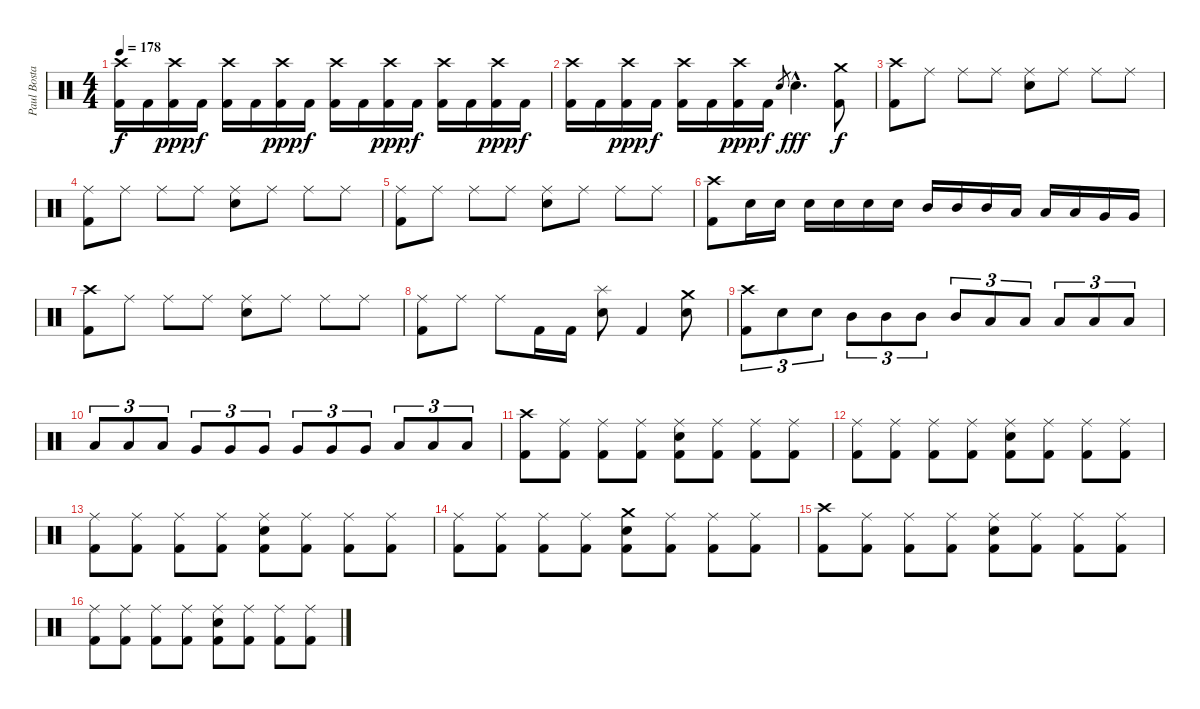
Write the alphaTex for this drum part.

\track ("Paul Bostaph" "Paul Bosta") {instrument percussion}
\staff {score}
\articulation defaults
\ts (4 4)
\tempo 178
\clef neutral
\ks c
("Crash high (hit)" "Kick (hit) 2").16{dy f} "Kick (hit) 2".16 ("Crash high (hit)" "Kick (hit) 2").16{dy ppp} "Kick (hit) 2".16{dy f} ("Crash high (hit)" "Kick (hit) 2").16 "Kick (hit) 2".16 ("Crash high (hit)" "Kick (hit) 2").16{dy ppp} "Kick (hit) 2".16{dy f} ("Crash high (hit)" "Kick (hit) 2").16 "Kick (hit) 2".16 ("Crash high (hit)" "Kick (hit) 2").16{dy ppp} "Kick (hit) 2".16{dy f} ("Crash high (hit)" "Kick (hit) 2").16 "Kick (hit) 2".16 ("Crash high (hit)" "Kick (hit) 2").16{dy ppp} "Kick (hit) 2".16{dy f} |
("Crash high (hit)" "Kick (hit) 2").16 "Kick (hit) 2".16 ("Crash high (hit)" "Kick (hit) 2").16{dy ppp} "Kick (hit) 2".16{dy f} ("Crash high (hit)" "Kick (hit) 2").16 "Kick (hit) 2".16 ("Crash high (hit)" "Kick (hit) 2").16{dy ppp} "Kick (hit) 2".16{dy f} "Electric Snare (hit)".8{gr} "Electric Snare (hit)"{hac}.4{d dy fff} ("Crash medium (hit)" "Kick (hit) 2").8{dy f} |
("Crash high (hit)" "Kick (hit) 2").8 "Ride (middle)".8 "Ride (middle)".8 "Ride (middle)".8 ("Electric Snare (hit)" "Ride (middle)").8 "Ride (middle)".8 "Ride (middle)".8 "Ride (middle)".8 |
("Kick (hit) 2" "Ride (middle)").8 "Ride (middle)".8 "Ride (middle)".8 "Ride (middle)".8 ("Electric Snare (hit)" "Ride (middle)").8 "Ride (middle)".8 "Ride (middle)".8 "Ride (middle)".8 |
("Kick (hit) 2" "Ride (middle)").8 "Ride (middle)".8 "Ride (middle)".8 "Ride (middle)".8 ("Electric Snare (hit)" "Ride (middle)").8 "Ride (middle)".8 "Ride (middle)".8 "Ride (middle)".8 |
("Kick (hit) 2" "Crash high (hit)").8 "Electric Snare (hit)".16 "Electric Snare (hit)".16 "Electric Snare (hit)".16 "Electric Snare (hit)".16 "Electric Snare (hit)".16 "Electric Snare (hit)".16 "Mid Tom (hit)".16 "Mid Tom (hit)".16 "Mid Tom (hit)".16 "Low Tom (hit)".16 "Low Tom (hit)".16 "Low Tom (hit)".16 "Very Low Tom (hit)".16 "Very Low Tom (hit)".16 |
("Kick (hit) 2" "Crash high (hit)").8 "Ride (middle)".8 "Ride (middle)".8 "Ride (middle)".8 ("Electric Snare (hit)" "Ride (middle)").8 "Ride (middle)".8 "Ride (middle)".8 "Ride (middle)".8 |
("Kick (hit) 2" "Ride (middle)").8 "Ride (middle)".8 "Ride (middle)".8 "Kick (hit) 2".16 "Kick (hit) 2".16 ("Splash (hit)" "Electric Snare (hit)").8 "Kick (hit) 2".4 ("Crash medium (hit)" "Electric Snare (hit)").8 |
("Crash high (hit)" "Kick (hit) 2").8{tu (3 2)} "Electric Snare (hit)".8{tu (3 2)} "Electric Snare (hit)".8{tu (3 2)} "Mid Tom (hit)".8{tu (3 2)} "Mid Tom (hit)".8{tu (3 2)} "Mid Tom (hit)".8{tu (3 2)} "Mid Tom (hit)".8{tu (3 2)} "Low Tom (hit)".8{tu (3 2)} "Low Tom (hit)".8{tu (3 2)} "Low Tom (hit)".8{tu (3 2)} "Low Tom (hit)".8{tu (3 2)} "Low Tom (hit)".8{tu (3 2)} |
"Low Tom (hit)".8{tu (3 2)} "Low Tom (hit)".8{tu (3 2)} "Low Tom (hit)".8{tu (3 2)} "Very Low Tom (hit)".8{tu (3 2)} "Very Low Tom (hit)".8{tu (3 2)} "Very Low Tom (hit)".8{tu (3 2)} "Very Low Tom (hit)".8{tu (3 2)} "Very Low Tom (hit)".8{tu (3 2)} "Very Low Tom (hit)".8{tu (3 2)} "Low Floor Tom (hit)".8{tu (3 2)} "Low Floor Tom (hit)".8{tu (3 2)} "Low Floor Tom (hit)".8{tu (3 2)} |
("Kick (hit) 2" "Crash high (hit)").8 ("Kick (hit) 2" "Ride (middle)").8 ("Kick (hit) 2" "Ride (middle)").8 ("Kick (hit) 2" "Ride (middle)").8 ("Electric Snare (hit)" "Kick (hit) 2" "Ride (middle)").8 ("Kick (hit) 2" "Ride (middle)").8 ("Kick (hit) 2" "Ride (middle)").8 ("Kick (hit) 2" "Ride (middle)").8 |
("Kick (hit) 2" "Ride (middle)").8 ("Kick (hit) 2" "Ride (middle)").8 ("Kick (hit) 2" "Ride (middle)").8 ("Kick (hit) 2" "Ride (middle)").8 ("Electric Snare (hit)" "Kick (hit) 2" "Ride (middle)").8 ("Kick (hit) 2" "Ride (middle)").8 ("Kick (hit) 2" "Ride (middle)").8 ("Kick (hit) 2" "Ride (middle)").8 |
("Kick (hit) 2" "Ride (middle)").8 ("Kick (hit) 2" "Ride (middle)").8 ("Kick (hit) 2" "Ride (middle)").8 ("Kick (hit) 2" "Ride (middle)").8 ("Electric Snare (hit)" "Kick (hit) 2" "Ride (middle)").8 ("Kick (hit) 2" "Ride (middle)").8 ("Kick (hit) 2" "Ride (middle)").8 ("Kick (hit) 2" "Ride (middle)").8 |
("Kick (hit) 2" "Ride (middle)").8 ("Kick (hit) 2" "Ride (middle)").8 ("Kick (hit) 2" "Ride (middle)").8 ("Kick (hit) 2" "Ride (middle)").8 ("Electric Snare (hit)" "Kick (hit) 2" "Crash medium (hit)").8 ("Kick (hit) 2" "Ride (middle)").8 ("Kick (hit) 2" "Ride (middle)").8 ("Kick (hit) 2" "Ride (middle)").8 |
("Kick (hit) 2" "Crash high (hit)").8 ("Kick (hit) 2" "Ride (middle)").8 ("Kick (hit) 2" "Ride (middle)").8 ("Kick (hit) 2" "Ride (middle)").8 ("Electric Snare (hit)" "Kick (hit) 2" "Ride (middle)").8 ("Kick (hit) 2" "Ride (middle)").8 ("Kick (hit) 2" "Ride (middle)").8 ("Kick (hit) 2" "Ride (middle)").8 |
("Kick (hit) 2" "Ride (middle)").8 ("Kick (hit) 2" "Ride (middle)").8 ("Kick (hit) 2" "Ride (middle)").8 ("Kick (hit) 2" "Ride (middle)").8 ("Electric Snare (hit)" "Kick (hit) 2" "Ride (middle)").8 ("Kick (hit) 2" "Ride (middle)").8 ("Kick (hit) 2" "Ride (middle)").8 ("Kick (hit) 2" "Ride (middle)").8
